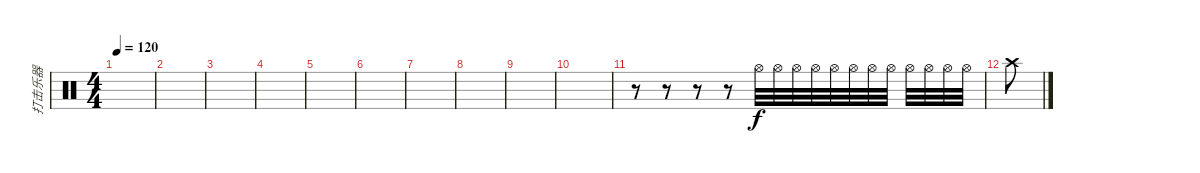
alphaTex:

\track ("打击乐器" "打击乐器") {instrument percussion}
\staff {score}
\articulation defaults
\ts (4 4)
\tempo 120
\clef neutral
\ks c
|
|
|
|
|
|
|
|
|
|
r.8 r.8 r.8 r.8 "Hi-Hat (open)".32 "Hi-Hat (open)".32 "Hi-Hat (open)".32 "Hi-Hat (open)".32 "Hi-Hat (open)".32 "Hi-Hat (open)".32 "Hi-Hat (open)".32 "Hi-Hat (open)".32 "Hi-Hat (open)".32 "Hi-Hat (open)".32 "Hi-Hat (open)".32 "Hi-Hat (open)".32 |
"Crash high (hit)".8
